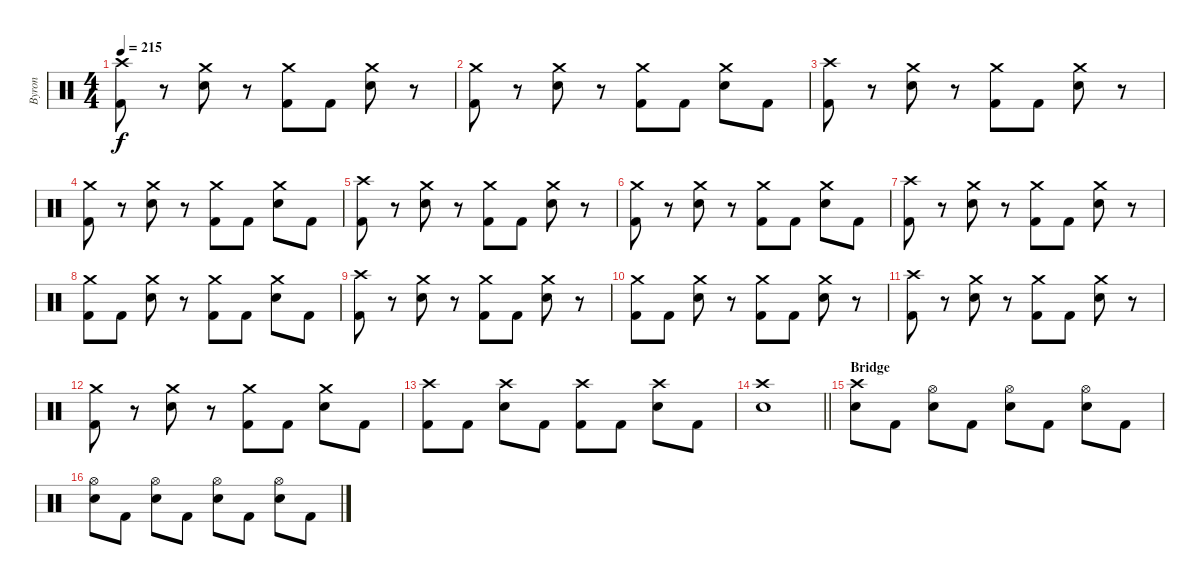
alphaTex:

\track ("Byron" "Byron") {instrument percussion}
\staff {score}
\articulation defaults
\ts (4 4)
\tempo 215
\clef neutral
\ks c
("Crash high (hit)" "Kick (hit) 2").8{dy f} r.8 ("Crash medium (hit)" "Electric Snare (hit)").8 r.8 ("Crash medium (hit)" "Kick (hit) 2").8 "Kick (hit) 2".8 ("Crash medium (hit)" "Electric Snare (hit)").8 r.8 |
("Crash medium (hit)" "Kick (hit) 2").8 r.8 ("Crash medium (hit)" "Electric Snare (hit)").8 r.8 ("Crash medium (hit)" "Kick (hit) 2").8 "Kick (hit) 2".8 ("Crash medium (hit)" "Electric Snare (hit)").8 "Kick (hit) 2".8 |
("Crash high (hit)" "Kick (hit) 2").8 r.8 ("Crash medium (hit)" "Electric Snare (hit)").8 r.8 ("Crash medium (hit)" "Kick (hit) 2").8 "Kick (hit) 2".8 ("Crash medium (hit)" "Electric Snare (hit)").8 r.8 |
("Crash medium (hit)" "Kick (hit) 2").8 r.8 ("Crash medium (hit)" "Electric Snare (hit)").8 r.8 ("Crash medium (hit)" "Kick (hit) 2").8 "Kick (hit) 2".8 ("Crash medium (hit)" "Electric Snare (hit)").8 "Kick (hit) 2".8 |
("Crash high (hit)" "Kick (hit) 2").8 r.8 ("Crash medium (hit)" "Electric Snare (hit)").8 r.8 ("Crash medium (hit)" "Kick (hit) 2").8 "Kick (hit) 2".8 ("Crash medium (hit)" "Electric Snare (hit)").8 r.8 |
("Crash medium (hit)" "Kick (hit) 2").8 r.8 ("Crash medium (hit)" "Electric Snare (hit)").8 r.8 ("Crash medium (hit)" "Kick (hit) 2").8 "Kick (hit) 2".8 ("Crash medium (hit)" "Electric Snare (hit)").8 "Kick (hit) 2".8 |
("Crash high (hit)" "Kick (hit) 2").8 r.8 ("Crash medium (hit)" "Electric Snare (hit)").8 r.8 ("Crash medium (hit)" "Kick (hit) 2").8 "Kick (hit) 2".8 ("Crash medium (hit)" "Electric Snare (hit)").8 r.8 |
("Crash medium (hit)" "Kick (hit) 2").8 "Kick (hit) 2".8 ("Crash medium (hit)" "Electric Snare (hit)").8 r.8 ("Crash medium (hit)" "Kick (hit) 2").8 "Kick (hit) 2".8 ("Crash medium (hit)" "Electric Snare (hit)").8 "Kick (hit) 2".8 |
("Crash high (hit)" "Kick (hit) 2").8 r.8 ("Crash medium (hit)" "Electric Snare (hit)").8 r.8 ("Crash medium (hit)" "Kick (hit) 2").8 "Kick (hit) 2".8 ("Crash medium (hit)" "Electric Snare (hit)").8 r.8 |
("Crash medium (hit)" "Kick (hit) 2").8 "Kick (hit) 2".8 ("Crash medium (hit)" "Electric Snare (hit)").8 r.8 ("Crash medium (hit)" "Kick (hit) 2").8 "Kick (hit) 2".8 ("Crash medium (hit)" "Electric Snare (hit)").8 r.8 |
("Crash high (hit)" "Kick (hit) 2").8 r.8 ("Crash medium (hit)" "Electric Snare (hit)").8 r.8 ("Crash medium (hit)" "Kick (hit) 2").8 "Kick (hit) 2".8 ("Crash medium (hit)" "Electric Snare (hit)").8 r.8 |
("Crash medium (hit)" "Kick (hit) 2").8 r.8 ("Crash medium (hit)" "Electric Snare (hit)").8 r.8 ("Crash medium (hit)" "Kick (hit) 2").8 "Kick (hit) 2".8 ("Crash medium (hit)" "Electric Snare (hit)").8 "Kick (hit) 2".8 |
("Crash high (hit)" "Kick (hit) 2").8 "Kick (hit) 2".8 ("Crash high (hit)" "Electric Snare (hit)").8 "Kick (hit) 2".8 ("Crash high (hit)" "Kick (hit) 2").8 "Kick (hit) 2".8 ("Crash high (hit)" "Electric Snare (hit)").8 "Kick (hit) 2".8 |
\barLineRight lightlight
("Crash high (hit)" "Electric Snare (hit)").1 |
\section ("" "Bridge")
("Crash high (hit)" "Electric Snare (hit)").8 "Kick (hit) 2".8 ("Hi-Hat (open)" "Electric Snare (hit)").8 "Kick (hit) 2".8 ("Hi-Hat (open)" "Electric Snare (hit)").8 "Kick (hit) 2".8 ("Hi-Hat (open)" "Electric Snare (hit)").8 "Kick (hit) 2".8 |
("Hi-Hat (open)" "Electric Snare (hit)").8 "Kick (hit) 2".8 ("Hi-Hat (open)" "Electric Snare (hit)").8 "Kick (hit) 2".8 ("Hi-Hat (open)" "Electric Snare (hit)").8 "Kick (hit) 2".8 ("Hi-Hat (open)" "Electric Snare (hit)").8 "Kick (hit) 2".8
